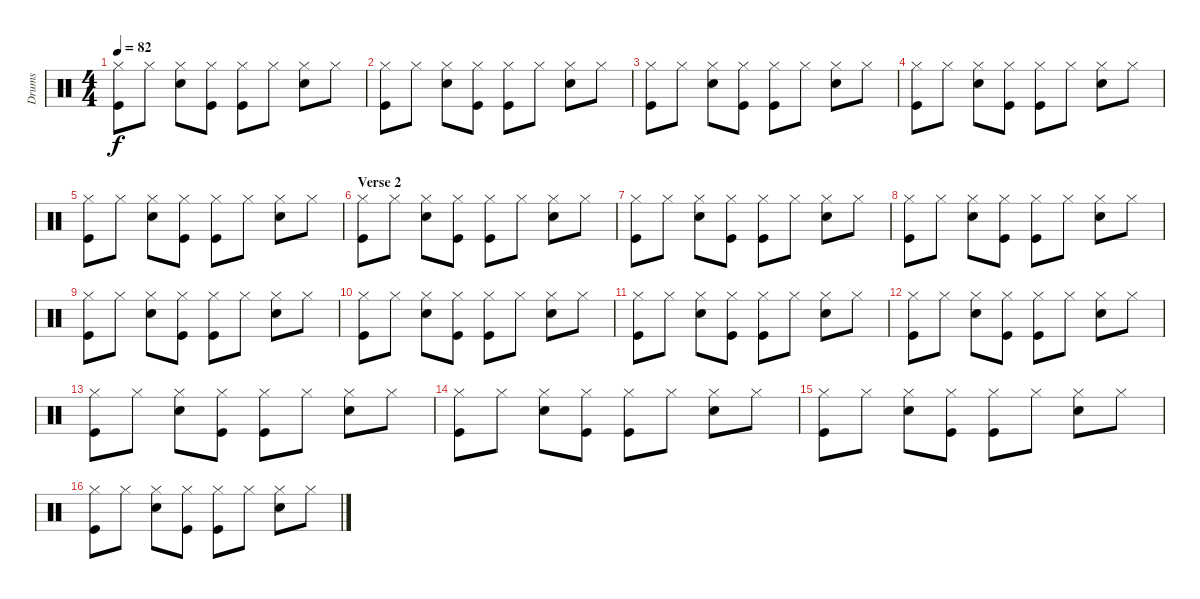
\track ("Drums" "Drums") {instrument percussion}
\staff {score}
\articulation defaults
\ts (4 4)
\tempo 82
\clef neutral
\ks c
("Hi-Hat (closed)" "Kick (hit)").8{dy f} "Hi-Hat (closed)".8 ("Hi-Hat (closed)" "Electric Snare (hit)").8 ("Hi-Hat (closed)" "Kick (hit)").8 ("Hi-Hat (closed)" "Kick (hit)").8 "Hi-Hat (closed)".8 ("Hi-Hat (closed)" "Electric Snare (hit)").8 "Hi-Hat (closed)".8 |
("Hi-Hat (closed)" "Kick (hit)").8 "Hi-Hat (closed)".8 ("Hi-Hat (closed)" "Electric Snare (hit)").8 ("Hi-Hat (closed)" "Kick (hit)").8 ("Hi-Hat (closed)" "Kick (hit)").8 "Hi-Hat (closed)".8 ("Hi-Hat (closed)" "Electric Snare (hit)").8 "Hi-Hat (closed)".8 |
("Hi-Hat (closed)" "Kick (hit)").8 "Hi-Hat (closed)".8 ("Hi-Hat (closed)" "Electric Snare (hit)").8 ("Hi-Hat (closed)" "Kick (hit)").8 ("Hi-Hat (closed)" "Kick (hit)").8 "Hi-Hat (closed)".8 ("Hi-Hat (closed)" "Electric Snare (hit)").8 "Hi-Hat (closed)".8 |
("Hi-Hat (closed)" "Kick (hit)").8 "Hi-Hat (closed)".8 ("Hi-Hat (closed)" "Electric Snare (hit)").8 ("Hi-Hat (closed)" "Kick (hit)").8 ("Hi-Hat (closed)" "Kick (hit)").8 "Hi-Hat (closed)".8 ("Hi-Hat (closed)" "Electric Snare (hit)").8 "Hi-Hat (closed)".8 |
("Hi-Hat (closed)" "Kick (hit)").8 "Hi-Hat (closed)".8 ("Hi-Hat (closed)" "Electric Snare (hit)").8 ("Hi-Hat (closed)" "Kick (hit)").8 ("Hi-Hat (closed)" "Kick (hit)").8 "Hi-Hat (closed)".8 ("Hi-Hat (closed)" "Electric Snare (hit)").8 "Hi-Hat (closed)".8 |
\section ("" "Verse 2")
("Hi-Hat (closed)" "Kick (hit)").8 "Hi-Hat (closed)".8 ("Hi-Hat (closed)" "Electric Snare (hit)").8 ("Hi-Hat (closed)" "Kick (hit)").8 ("Hi-Hat (closed)" "Kick (hit)").8 "Hi-Hat (closed)".8 ("Hi-Hat (closed)" "Electric Snare (hit)").8 "Hi-Hat (closed)".8 |
("Hi-Hat (closed)" "Kick (hit)").8 "Hi-Hat (closed)".8 ("Hi-Hat (closed)" "Electric Snare (hit)").8 ("Hi-Hat (closed)" "Kick (hit)").8 ("Hi-Hat (closed)" "Kick (hit)").8 "Hi-Hat (closed)".8 ("Hi-Hat (closed)" "Electric Snare (hit)").8 "Hi-Hat (closed)".8 |
("Hi-Hat (closed)" "Kick (hit)").8 "Hi-Hat (closed)".8 ("Hi-Hat (closed)" "Electric Snare (hit)").8 ("Hi-Hat (closed)" "Kick (hit)").8 ("Hi-Hat (closed)" "Kick (hit)").8 "Hi-Hat (closed)".8 ("Hi-Hat (closed)" "Electric Snare (hit)").8 "Hi-Hat (closed)".8 |
("Hi-Hat (closed)" "Kick (hit)").8 "Hi-Hat (closed)".8 ("Hi-Hat (closed)" "Electric Snare (hit)").8 ("Hi-Hat (closed)" "Kick (hit)").8 ("Hi-Hat (closed)" "Kick (hit)").8 "Hi-Hat (closed)".8 ("Hi-Hat (closed)" "Electric Snare (hit)").8 "Hi-Hat (closed)".8 |
("Hi-Hat (closed)" "Kick (hit)").8 "Hi-Hat (closed)".8 ("Hi-Hat (closed)" "Electric Snare (hit)").8 ("Hi-Hat (closed)" "Kick (hit)").8 ("Hi-Hat (closed)" "Kick (hit)").8 "Hi-Hat (closed)".8 ("Hi-Hat (closed)" "Electric Snare (hit)").8 "Hi-Hat (closed)".8 |
("Hi-Hat (closed)" "Kick (hit)").8 "Hi-Hat (closed)".8 ("Hi-Hat (closed)" "Electric Snare (hit)").8 ("Hi-Hat (closed)" "Kick (hit)").8 ("Hi-Hat (closed)" "Kick (hit)").8 "Hi-Hat (closed)".8 ("Hi-Hat (closed)" "Electric Snare (hit)").8 "Hi-Hat (closed)".8 |
("Hi-Hat (closed)" "Kick (hit)").8 "Hi-Hat (closed)".8 ("Hi-Hat (closed)" "Electric Snare (hit)").8 ("Hi-Hat (closed)" "Kick (hit)").8 ("Hi-Hat (closed)" "Kick (hit)").8 "Hi-Hat (closed)".8 ("Hi-Hat (closed)" "Electric Snare (hit)").8 "Hi-Hat (closed)".8 |
("Hi-Hat (closed)" "Kick (hit)").8 "Hi-Hat (closed)".8 ("Hi-Hat (closed)" "Electric Snare (hit)").8 ("Hi-Hat (closed)" "Kick (hit)").8 ("Hi-Hat (closed)" "Kick (hit)").8 "Hi-Hat (closed)".8 ("Hi-Hat (closed)" "Electric Snare (hit)").8 "Hi-Hat (closed)".8 |
("Hi-Hat (closed)" "Kick (hit)").8 "Hi-Hat (closed)".8 ("Hi-Hat (closed)" "Electric Snare (hit)").8 ("Hi-Hat (closed)" "Kick (hit)").8 ("Hi-Hat (closed)" "Kick (hit)").8 "Hi-Hat (closed)".8 ("Hi-Hat (closed)" "Electric Snare (hit)").8 "Hi-Hat (closed)".8 |
("Hi-Hat (closed)" "Kick (hit)").8 "Hi-Hat (closed)".8 ("Hi-Hat (closed)" "Electric Snare (hit)").8 ("Hi-Hat (closed)" "Kick (hit)").8 ("Hi-Hat (closed)" "Kick (hit)").8 "Hi-Hat (closed)".8 ("Hi-Hat (closed)" "Electric Snare (hit)").8 "Hi-Hat (closed)".8 |
("Hi-Hat (closed)" "Kick (hit)").8 "Hi-Hat (closed)".8 ("Hi-Hat (closed)" "Electric Snare (hit)").8 ("Hi-Hat (closed)" "Kick (hit)").8 ("Hi-Hat (closed)" "Kick (hit)").8 "Hi-Hat (closed)".8 ("Hi-Hat (closed)" "Electric Snare (hit)").8 "Hi-Hat (closed)".8
